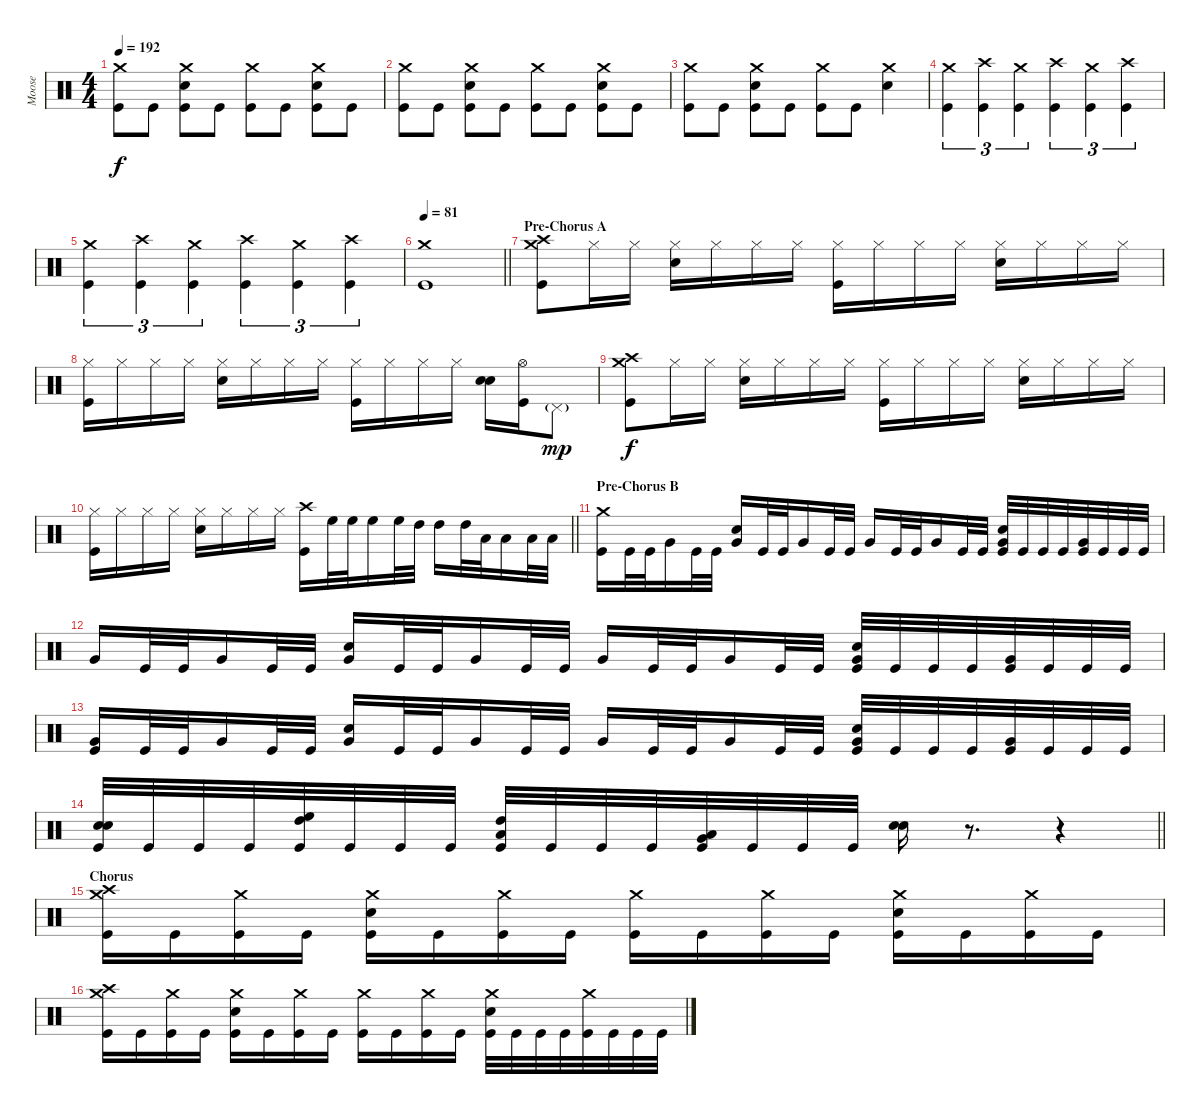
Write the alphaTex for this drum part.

\track ("Moose" "Moose") {instrument percussion}
\staff {score}
\articulation defaults
\ts (4 4)
\tempo 192
\clef neutral
\ks c
("Crash medium (hit)" "Kick (hit)").8{dy f} "Kick (hit)".8 ("Crash medium (hit)" "Electric Snare (hit)" "Kick (hit)").8 "Kick (hit)".8 ("Crash medium (hit)" "Kick (hit)").8 "Kick (hit)".8 ("Crash medium (hit)" "Electric Snare (hit)" "Kick (hit)").8 "Kick (hit)".8 |
("Crash medium (hit)" "Kick (hit)").8 "Kick (hit)".8 ("Crash medium (hit)" "Electric Snare (hit)" "Kick (hit)").8 "Kick (hit)".8 ("Crash medium (hit)" "Kick (hit)").8 "Kick (hit)".8 ("Crash medium (hit)" "Electric Snare (hit)" "Kick (hit)").8 "Kick (hit)".8 |
("Crash medium (hit)" "Kick (hit)").8 "Kick (hit)".8 ("Crash medium (hit)" "Electric Snare (hit)" "Kick (hit)").8 "Kick (hit)".8 ("Crash medium (hit)" "Kick (hit)").8 "Kick (hit)".8 ("Crash medium (hit)" "Electric Snare (hit)").4 |
("Crash medium (hit)" "Kick (hit)").4{tu (3 2)} ("Crash high (hit)" "Kick (hit)").4{tu (3 2)} ("Crash medium (hit)" "Kick (hit)").4{tu (3 2)} ("Crash high (hit)" "Kick (hit)").4{tu (3 2)} ("Crash medium (hit)" "Kick (hit)").4{tu (3 2)} ("Crash high (hit)" "Kick (hit)").4{tu (3 2)} |
("Crash medium (hit)" "Kick (hit)").4{tu (3 2)} ("Crash high (hit)" "Kick (hit)").4{tu (3 2)} ("Crash medium (hit)" "Kick (hit)").4{tu (3 2)} ("Crash high (hit)" "Kick (hit)").4{tu (3 2)} ("Crash medium (hit)" "Kick (hit)").4{tu (3 2)} ("Crash high (hit)" "Kick (hit)").4{tu (3 2)} |
\tempo 81
\barLineRight lightlight
("Crash medium (hit)" "Kick (hit)").1 |
\section ("" "Pre-Chorus A")
("Crash high (hit)" "Crash medium (hit)" "Kick (hit)").8 "Hi-Hat (closed)".16 "Hi-Hat (closed)".16 ("Hi-Hat (closed)" "Electric Snare (hit)").16 "Hi-Hat (closed)".16 "Hi-Hat (closed)".16 "Hi-Hat (closed)".16 ("Hi-Hat (closed)" "Kick (hit)").16 "Hi-Hat (closed)".16 "Hi-Hat (closed)".16 "Hi-Hat (closed)".16 ("Hi-Hat (closed)" "Electric Snare (hit)").16 "Hi-Hat (closed)".16 "Hi-Hat (closed)".16 "Hi-Hat (closed)".16 |
("Hi-Hat (closed)" "Kick (hit)").16 "Hi-Hat (closed)".16 "Hi-Hat (closed)".16 "Hi-Hat (closed)".16 ("Hi-Hat (closed)" "Electric Snare (hit)").16 "Hi-Hat (closed)".16 "Hi-Hat (closed)".16 "Hi-Hat (closed)".16 ("Hi-Hat (closed)" "Kick (hit)").16 "Hi-Hat (closed)".16 "Hi-Hat (closed)".16 "Hi-Hat (closed)".16 ("Electric Snare (hit)" "Electric Snare (hit)").16{bd 120} ("Hi-Hat (open)" "Kick (hit)").16 "Pedal Hi-Hat (hit)"{g}.8{dy mp} |
("Crash high (hit)" "Crash medium (hit)" "Kick (hit)").8{dy f} "Hi-Hat (closed)".16 "Hi-Hat (closed)".16 ("Hi-Hat (closed)" "Electric Snare (hit)").16 "Hi-Hat (closed)".16 "Hi-Hat (closed)".16 "Hi-Hat (closed)".16 ("Hi-Hat (closed)" "Kick (hit)").16 "Hi-Hat (closed)".16 "Hi-Hat (closed)".16 "Hi-Hat (closed)".16 ("Hi-Hat (closed)" "Electric Snare (hit)").16 "Hi-Hat (closed)".16 "Hi-Hat (closed)".16 "Hi-Hat (closed)".16 |
\barLineRight lightlight
("Hi-Hat (closed)" "Kick (hit)").16 "Hi-Hat (closed)".16 "Hi-Hat (closed)".16 "Hi-Hat (closed)".16 ("Hi-Hat (closed)" "Electric Snare (hit)").16 "Hi-Hat (closed)".16 "Hi-Hat (closed)".16 "Hi-Hat (closed)".16 ("Crash high (hit)" "Kick (hit)").16 "High Floor Tom (hit)".32 "High Floor Tom (hit)".32 "High Floor Tom (hit)".16 "High Floor Tom (hit)".32 "High Tom (hit)".32 "High Tom (hit)".16 "High Tom (hit)".32 "Low Tom (hit)".32 "Low Tom (hit)".16 "Low Tom (hit)".32 "Low Tom (hit)".32 |
\section ("" "Pre-Chorus B")
("Crash medium (hit)" "Kick (hit)").16 "Kick (hit)".32 "Kick (hit)".32 "Very Low Tom (hit)".16 "Kick (hit)".32 "Kick (hit)".32 ("Electric Snare (hit)" "Very Low Tom (hit)").16 "Kick (hit)".32 "Kick (hit)".32 "Very Low Tom (hit)".16 "Kick (hit)".32 "Kick (hit)".32 "Very Low Tom (hit)".16 "Kick (hit)".32 "Kick (hit)".32 "Very Low Tom (hit)".16 "Kick (hit)".32 "Kick (hit)".32 ("Electric Snare (hit)" "Very Low Tom (hit)" "Kick (hit)").32 "Kick (hit)".32 "Kick (hit)".32 "Kick (hit)".32 ("Very Low Tom (hit)" "Kick (hit)").32 "Kick (hit)".32 "Kick (hit)".32 "Kick (hit)".32 |
"Very Low Tom (hit)".16 "Kick (hit)".32 "Kick (hit)".32 "Very Low Tom (hit)".16 "Kick (hit)".32 "Kick (hit)".32 ("Electric Snare (hit)" "Very Low Tom (hit)").16 "Kick (hit)".32 "Kick (hit)".32 "Very Low Tom (hit)".16 "Kick (hit)".32 "Kick (hit)".32 "Very Low Tom (hit)".16 "Kick (hit)".32 "Kick (hit)".32 "Very Low Tom (hit)".16 "Kick (hit)".32 "Kick (hit)".32 ("Electric Snare (hit)" "Very Low Tom (hit)" "Kick (hit)").32 "Kick (hit)".32 "Kick (hit)".32 "Kick (hit)".32 ("Very Low Tom (hit)" "Kick (hit)").32 "Kick (hit)".32 "Kick (hit)".32 "Kick (hit)".32 |
("Very Low Tom (hit)" "Kick (hit)").16 "Kick (hit)".32 "Kick (hit)".32 "Very Low Tom (hit)".16 "Kick (hit)".32 "Kick (hit)".32 ("Electric Snare (hit)" "Very Low Tom (hit)").16 "Kick (hit)".32 "Kick (hit)".32 "Very Low Tom (hit)".16 "Kick (hit)".32 "Kick (hit)".32 "Very Low Tom (hit)".16 "Kick (hit)".32 "Kick (hit)".32 "Very Low Tom (hit)".16 "Kick (hit)".32 "Kick (hit)".32 ("Electric Snare (hit)" "Very Low Tom (hit)" "Kick (hit)").32 "Kick (hit)".32 "Kick (hit)".32 "Kick (hit)".32 ("Very Low Tom (hit)" "Kick (hit)").32 "Kick (hit)".32 "Kick (hit)".32 "Kick (hit)".32 |
\barLineRight lightlight
("Electric Snare (hit)" "Electric Snare (hit)" "Kick (hit)").32{bd 120} "Kick (hit)".32 "Kick (hit)".32 "Kick (hit)".32 ("High Floor Tom (hit)" "High Tom (hit)" "Kick (hit)").32{bd 120} "Kick (hit)".32 "Kick (hit)".32 "Kick (hit)".32 ("High Tom (hit)" "Low Tom (hit)" "Kick (hit)").32{bd 120} "Kick (hit)".32 "Kick (hit)".32 "Kick (hit)".32 ("Low Tom (hit)" "Very Low Tom (hit)" "Kick (hit)").32{bd 120} "Kick (hit)".32 "Kick (hit)".32 "Kick (hit)".32 ("Electric Snare (hit)" "Electric Snare (hit)").16{bd 120} r.8{d} r.4 |
\section ("" "Chorus")
("Crash high (hit)" "Crash medium (hit)" "Kick (hit)").16 "Kick (hit)".16 ("Crash medium (hit)" "Kick (hit)").16 "Kick (hit)".16 ("Crash medium (hit)" "Electric Snare (hit)" "Kick (hit)").16 "Kick (hit)".16 ("Crash medium (hit)" "Kick (hit)").16 "Kick (hit)".16 ("Crash medium (hit)" "Kick (hit)").16 "Kick (hit)".16 ("Crash medium (hit)" "Kick (hit)").16 "Kick (hit)".16 ("Crash medium (hit)" "Electric Snare (hit)" "Kick (hit)").16 "Kick (hit)".16 ("Crash medium (hit)" "Kick (hit)").16 "Kick (hit)".16 |
("Crash high (hit)" "Crash medium (hit)" "Kick (hit)").16 "Kick (hit)".16 ("Crash medium (hit)" "Kick (hit)").16 "Kick (hit)".16 ("Crash medium (hit)" "Electric Snare (hit)" "Kick (hit)").16 "Kick (hit)".16 ("Crash medium (hit)" "Kick (hit)").16 "Kick (hit)".16 ("Crash medium (hit)" "Kick (hit)").16 "Kick (hit)".16 ("Crash medium (hit)" "Kick (hit)").16 "Kick (hit)".16 ("Crash medium (hit)" "Electric Snare (hit)" "Kick (hit)").32 "Kick (hit)".32 "Kick (hit)".32 "Kick (hit)".32 ("Crash medium (hit)" "Kick (hit)").32 "Kick (hit)".32 "Kick (hit)".32 "Kick (hit)".32
